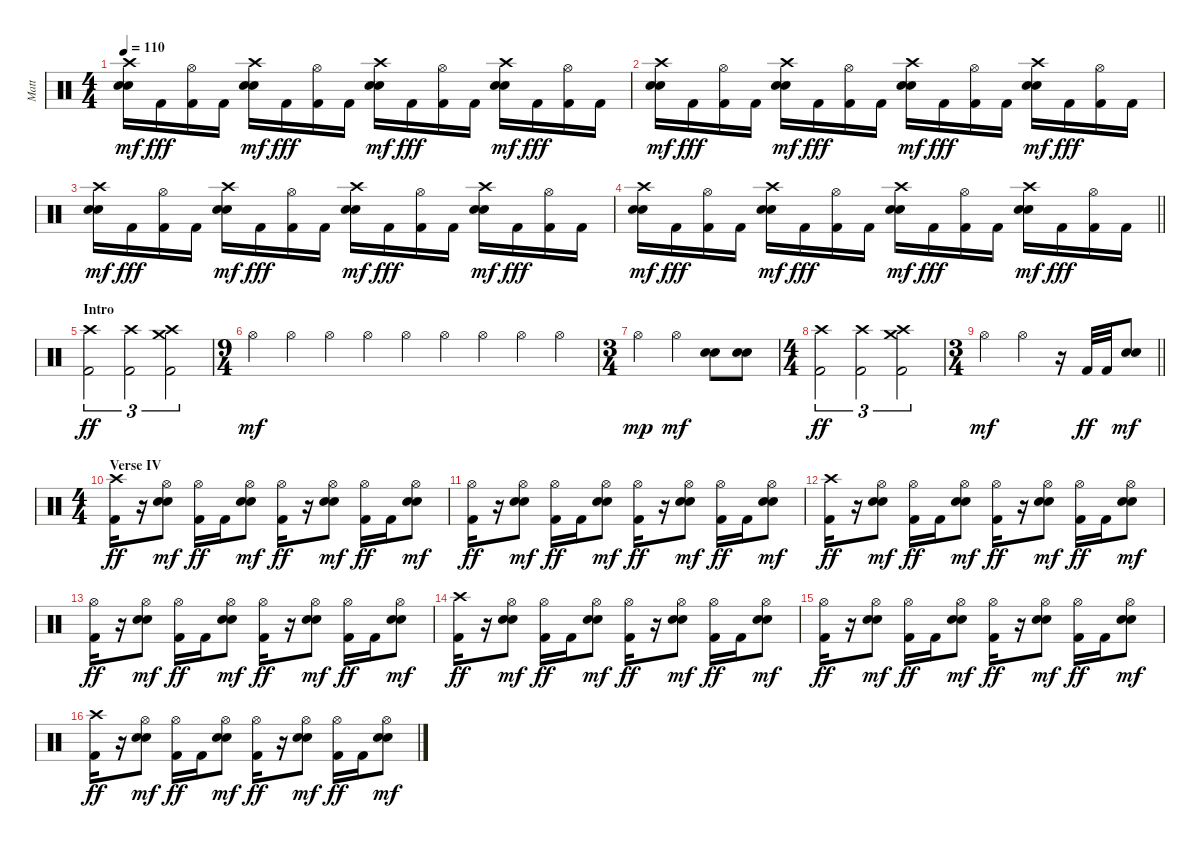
\track ("Matt" "Matt") {instrument percussion}
\staff {score}
\articulation defaults
\ts (4 4)
\tempo 110
\clef neutral
\ks c
("Crash high (hit)" "Electric Snare (hit)" "Snare (hit) 2").16{dy mf} "Kick (hit) 2".16{dy fff} ("Hi-Hat (open)" "Kick (hit) 2").16 "Kick (hit) 2".16 ("Crash high (hit)" "Electric Snare (hit)" "Snare (hit) 2").16{dy mf} "Kick (hit) 2".16{dy fff} ("Hi-Hat (open)" "Kick (hit) 2").16 "Kick (hit) 2".16 ("Crash high (hit)" "Electric Snare (hit)" "Snare (hit) 2").16{dy mf} "Kick (hit) 2".16{dy fff} ("Hi-Hat (open)" "Kick (hit) 2").16 "Kick (hit) 2".16 ("Crash high (hit)" "Electric Snare (hit)" "Snare (hit) 2").16{dy mf} "Kick (hit) 2".16{dy fff} ("Hi-Hat (open)" "Kick (hit) 2").16 "Kick (hit) 2".16 |
("Crash high (hit)" "Electric Snare (hit)" "Snare (hit) 2").16{dy mf} "Kick (hit) 2".16{dy fff} ("Hi-Hat (open)" "Kick (hit) 2").16 "Kick (hit) 2".16 ("Crash high (hit)" "Electric Snare (hit)" "Snare (hit) 2").16{dy mf} "Kick (hit) 2".16{dy fff} ("Hi-Hat (open)" "Kick (hit) 2").16 "Kick (hit) 2".16 ("Crash high (hit)" "Electric Snare (hit)" "Snare (hit) 2").16{dy mf} "Kick (hit) 2".16{dy fff} ("Hi-Hat (open)" "Kick (hit) 2").16 "Kick (hit) 2".16 ("Crash high (hit)" "Electric Snare (hit)" "Snare (hit) 2").16{dy mf} "Kick (hit) 2".16{dy fff} ("Hi-Hat (open)" "Kick (hit) 2").16 "Kick (hit) 2".16 |
("Crash high (hit)" "Electric Snare (hit)" "Snare (hit) 2").16{dy mf} "Kick (hit) 2".16{dy fff} ("Hi-Hat (open)" "Kick (hit) 2").16 "Kick (hit) 2".16 ("Crash high (hit)" "Electric Snare (hit)" "Snare (hit) 2").16{dy mf} "Kick (hit) 2".16{dy fff} ("Hi-Hat (open)" "Kick (hit) 2").16 "Kick (hit) 2".16 ("Crash high (hit)" "Electric Snare (hit)" "Snare (hit) 2").16{dy mf} "Kick (hit) 2".16{dy fff} ("Hi-Hat (open)" "Kick (hit) 2").16 "Kick (hit) 2".16 ("Crash high (hit)" "Electric Snare (hit)" "Snare (hit) 2").16{dy mf} "Kick (hit) 2".16{dy fff} ("Hi-Hat (open)" "Kick (hit) 2").16 "Kick (hit) 2".16 |
\barLineRight lightlight
("Crash high (hit)" "Electric Snare (hit)" "Snare (hit) 2").16{dy mf} "Kick (hit) 2".16{dy fff} ("Hi-Hat (open)" "Kick (hit) 2").16 "Kick (hit) 2".16 ("Crash high (hit)" "Electric Snare (hit)" "Snare (hit) 2").16{dy mf} "Kick (hit) 2".16{dy fff} ("Hi-Hat (open)" "Kick (hit) 2").16 "Kick (hit) 2".16 ("Crash high (hit)" "Electric Snare (hit)" "Snare (hit) 2").16{dy mf} "Kick (hit) 2".16{dy fff} ("Hi-Hat (open)" "Kick (hit) 2").16 "Kick (hit) 2".16 ("Crash high (hit)" "Electric Snare (hit)" "Snare (hit) 2").16{dy mf} "Kick (hit) 2".16{dy fff} ("Hi-Hat (open)" "Kick (hit) 2").16 "Kick (hit) 2".16 |
\section ("" "Intro")
("Crash high (hit)" "Kick (hit) 2").2{tu (3 2) dy ff} ("Crash high (hit)" "Kick (hit) 2").2{tu (3 2)} ("Crash medium (hit)" "Crash high (hit)" "Kick (hit) 2").2{tu (3 2)} |
\ts (9 4)
"Hi-Hat (open)".4{dy mf} "Hi-Hat (open)".4 "Hi-Hat (open)".4 "Hi-Hat (open)".4 "Hi-Hat (open)".4 "Hi-Hat (open)".4 "Hi-Hat (open)".4 "Hi-Hat (open)".4 "Hi-Hat (open)".4 |
\ts (3 4)
"Hi-Hat (open)".4{dy mp} "Hi-Hat (open)".4{dy mf} ("Electric Snare (hit)" "Snare (hit) 2").8 ("Electric Snare (hit)" "Snare (hit) 2").8 |
\ts (4 4)
("Crash high (hit)" "Kick (hit) 2").2{tu (3 2) dy ff} ("Crash high (hit)" "Kick (hit) 2").2{tu (3 2)} ("Crash medium (hit)" "Crash high (hit)" "Kick (hit) 2").2{tu (3 2)} |
\ts (3 4)
\barLineRight lightlight "Hi-Hat (open)".4{dy mf} "Hi-Hat (open)".4
r.16 "Kick (hit) 2".32{dy ff} "Kick (hit) 2".32 ("Electric Snare (hit)" "Snare (hit) 2").8{dy mf} |
\ts (4 4)
\section ("" "Verse IV")
("Crash high (hit)" "Kick (hit) 2").16{dy ff} r.16 ("Hi-Hat (open)" "Electric Snare (hit)" "Snare (hit) 2").8{dy mf} ("Hi-Hat (open)" "Kick (hit) 2").16{dy ff} "Kick (hit) 2".16 ("Hi-Hat (open)" "Electric Snare (hit)" "Snare (hit) 2").8{dy mf} ("Hi-Hat (open)" "Kick (hit) 2").16{dy ff} r.16 ("Hi-Hat (open)" "Electric Snare (hit)" "Snare (hit) 2").8{dy mf} ("Hi-Hat (open)" "Kick (hit) 2").16{dy ff} "Kick (hit) 2".16 ("Hi-Hat (open)" "Electric Snare (hit)" "Snare (hit) 2").8{dy mf} |
("Hi-Hat (open)" "Kick (hit) 2").16{dy ff} r.16 ("Hi-Hat (open)" "Electric Snare (hit)" "Snare (hit) 2").8{dy mf} ("Hi-Hat (open)" "Kick (hit) 2").16{dy ff} "Kick (hit) 2".16 ("Hi-Hat (open)" "Electric Snare (hit)" "Snare (hit) 2").8{dy mf} ("Hi-Hat (open)" "Kick (hit) 2").16{dy ff} r.16 ("Hi-Hat (open)" "Electric Snare (hit)" "Snare (hit) 2").8{dy mf} ("Hi-Hat (open)" "Kick (hit) 2").16{dy ff} "Kick (hit) 2".16 ("Hi-Hat (open)" "Electric Snare (hit)" "Snare (hit) 2").8{dy mf} |
("Crash high (hit)" "Kick (hit) 2").16{dy ff} r.16 ("Hi-Hat (open)" "Electric Snare (hit)" "Snare (hit) 2").8{dy mf} ("Hi-Hat (open)" "Kick (hit) 2").16{dy ff} "Kick (hit) 2".16 ("Hi-Hat (open)" "Electric Snare (hit)" "Snare (hit) 2").8{dy mf} ("Hi-Hat (open)" "Kick (hit) 2").16{dy ff} r.16 ("Hi-Hat (open)" "Electric Snare (hit)" "Snare (hit) 2").8{dy mf} ("Hi-Hat (open)" "Kick (hit) 2").16{dy ff} "Kick (hit) 2".16 ("Hi-Hat (open)" "Electric Snare (hit)" "Snare (hit) 2").8{dy mf} |
("Hi-Hat (open)" "Kick (hit) 2").16{dy ff} r.16 ("Hi-Hat (open)" "Electric Snare (hit)" "Snare (hit) 2").8{dy mf} ("Hi-Hat (open)" "Kick (hit) 2").16{dy ff} "Kick (hit) 2".16 ("Hi-Hat (open)" "Electric Snare (hit)" "Snare (hit) 2").8{dy mf} ("Hi-Hat (open)" "Kick (hit) 2").16{dy ff} r.16 ("Hi-Hat (open)" "Electric Snare (hit)" "Snare (hit) 2").8{dy mf} ("Hi-Hat (open)" "Kick (hit) 2").16{dy ff} "Kick (hit) 2".16 ("Hi-Hat (open)" "Electric Snare (hit)" "Snare (hit) 2").8{dy mf} |
("Crash high (hit)" "Kick (hit) 2").16{dy ff} r.16 ("Hi-Hat (open)" "Electric Snare (hit)" "Snare (hit) 2").8{dy mf} ("Hi-Hat (open)" "Kick (hit) 2").16{dy ff} "Kick (hit) 2".16 ("Hi-Hat (open)" "Electric Snare (hit)" "Snare (hit) 2").8{dy mf} ("Hi-Hat (open)" "Kick (hit) 2").16{dy ff} r.16 ("Hi-Hat (open)" "Electric Snare (hit)" "Snare (hit) 2").8{dy mf} ("Hi-Hat (open)" "Kick (hit) 2").16{dy ff} "Kick (hit) 2".16 ("Hi-Hat (open)" "Electric Snare (hit)" "Snare (hit) 2").8{dy mf} |
("Hi-Hat (open)" "Kick (hit) 2").16{dy ff} r.16 ("Hi-Hat (open)" "Electric Snare (hit)" "Snare (hit) 2").8{dy mf} ("Hi-Hat (open)" "Kick (hit) 2").16{dy ff} "Kick (hit) 2".16 ("Hi-Hat (open)" "Electric Snare (hit)" "Snare (hit) 2").8{dy mf} ("Hi-Hat (open)" "Kick (hit) 2").16{dy ff} r.16 ("Hi-Hat (open)" "Electric Snare (hit)" "Snare (hit) 2").8{dy mf} ("Hi-Hat (open)" "Kick (hit) 2").16{dy ff} "Kick (hit) 2".16 ("Hi-Hat (open)" "Electric Snare (hit)" "Snare (hit) 2").8{dy mf} |
("Crash high (hit)" "Kick (hit) 2").16{dy ff} r.16 ("Hi-Hat (open)" "Electric Snare (hit)" "Snare (hit) 2").8{dy mf} ("Hi-Hat (open)" "Kick (hit) 2").16{dy ff} "Kick (hit) 2".16 ("Hi-Hat (open)" "Electric Snare (hit)" "Snare (hit) 2").8{dy mf} ("Hi-Hat (open)" "Kick (hit) 2").16{dy ff} r.16 ("Hi-Hat (open)" "Electric Snare (hit)" "Snare (hit) 2").8{dy mf} ("Hi-Hat (open)" "Kick (hit) 2").16{dy ff} "Kick (hit) 2".16 ("Hi-Hat (open)" "Electric Snare (hit)" "Snare (hit) 2").8{dy mf}
